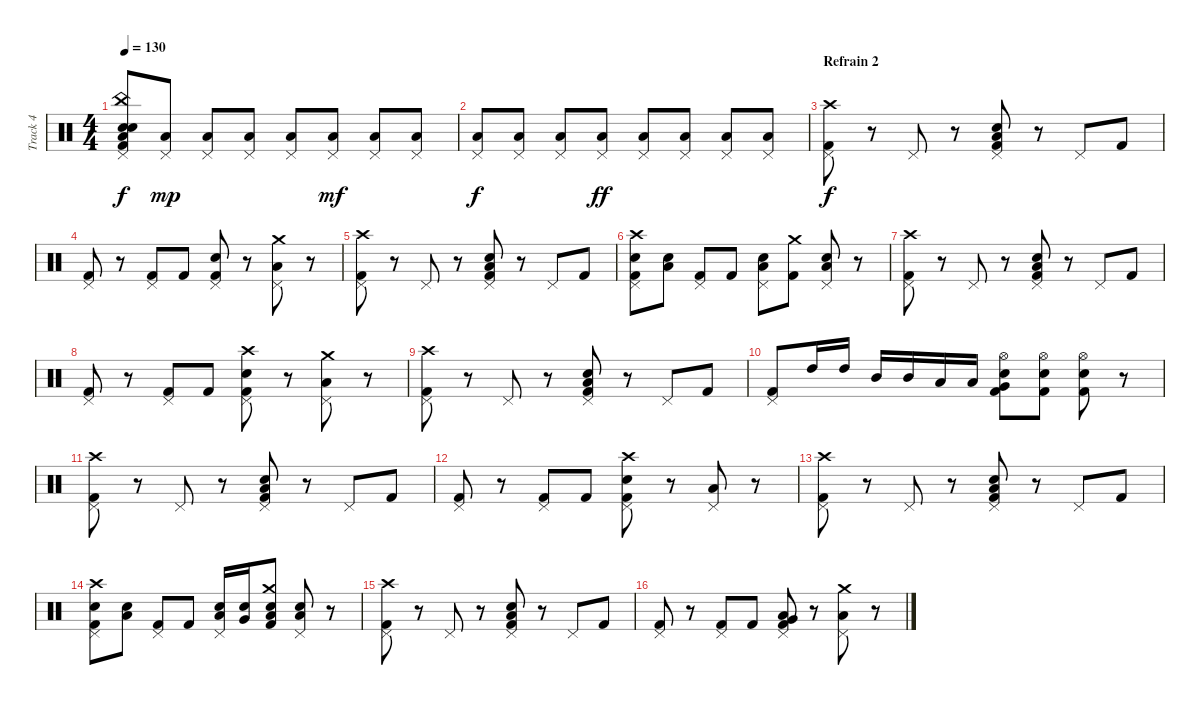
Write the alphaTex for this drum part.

\track ("Track 4" "Track 4") {instrument percussion}
\staff {score}
\articulation defaults
\ts (4 4)
\tempo 130
\clef neutral
\ks c
("Low Tom (hit)" "Snare (hit) 2" "China (hit)" "Electric Snare (hit)" "Kick (hit) 2" "Pedal Hi-Hat (hit)").8{dy f} ("Low Tom (hit)" "Pedal Hi-Hat (hit)").8{dy mp} ("Low Tom (hit)" "Pedal Hi-Hat (hit)").8 ("Low Tom (hit)" "Pedal Hi-Hat (hit)").8 ("Low Tom (hit)" "Pedal Hi-Hat (hit)").8 ("Low Tom (hit)" "Pedal Hi-Hat (hit)").8{dy mf} ("Low Tom (hit)" "Pedal Hi-Hat (hit)").8 ("Low Tom (hit)" "Pedal Hi-Hat (hit)").8 |
("Low Tom (hit)" "Pedal Hi-Hat (hit)").8{dy f} ("Low Tom (hit)" "Pedal Hi-Hat (hit)").8 ("Low Tom (hit)" "Pedal Hi-Hat (hit)").8 ("Low Tom (hit)" "Pedal Hi-Hat (hit)").8{dy ff} ("Low Tom (hit)" "Pedal Hi-Hat (hit)").8 ("Low Tom (hit)" "Pedal Hi-Hat (hit)").8 ("Low Tom (hit)" "Pedal Hi-Hat (hit)").8 ("Low Tom (hit)" "Pedal Hi-Hat (hit)").8 |
\section ("" "Refrain 2")
("Kick (hit) 2" "Pedal Hi-Hat (hit)" "Crash high (hit)").8{dy f} r.8 "Pedal Hi-Hat (hit)".8 r.8 ("Low Tom (hit)" "Snare (hit) 2" "Kick (hit) 2" "Pedal Hi-Hat (hit)").8 r.8 "Pedal Hi-Hat (hit)".8 "Kick (hit) 2".8 |
("Kick (hit) 2" "Pedal Hi-Hat (hit)").8 r.8 ("Pedal Hi-Hat (hit)" "Kick (hit) 2").8 "Kick (hit) 2".8 ("Pedal Hi-Hat (hit)" "Kick (hit) 2" "Snare (hit) 2").8 r.8 ("Pedal Hi-Hat (hit)" "Low Tom (hit)" "Crash medium (hit)").8 r.8 |
("Kick (hit) 2" "Pedal Hi-Hat (hit)" "Crash high (hit)").8 r.8 "Pedal Hi-Hat (hit)".8 r.8 ("Low Tom (hit)" "Snare (hit) 2" "Kick (hit) 2" "Pedal Hi-Hat (hit)").8 r.8 "Pedal Hi-Hat (hit)".8 "Kick (hit) 2".8 |
("Kick (hit) 2" "Pedal Hi-Hat (hit)" "Snare (hit) 2" "Crash high (hit)").8 ("Electric Snare (hit)" "Low Tom (hit)").8 ("Pedal Hi-Hat (hit)" "Kick (hit) 2").8 "Kick (hit) 2".8 ("Pedal Hi-Hat (hit)" "Low Tom (hit)" "Electric Snare (hit)").8 ("Kick (hit) 2" "Crash medium (hit)").8 ("Pedal Hi-Hat (hit)" "Low Tom (hit)" "Electric Snare (hit)").8 r.8 |
("Kick (hit) 2" "Pedal Hi-Hat (hit)" "Crash high (hit)").8 r.8 "Pedal Hi-Hat (hit)".8 r.8 ("Low Tom (hit)" "Snare (hit) 2" "Kick (hit) 2" "Pedal Hi-Hat (hit)").8 r.8 "Pedal Hi-Hat (hit)".8 "Kick (hit) 2".8 |
("Kick (hit) 2" "Pedal Hi-Hat (hit)").8 r.8 ("Pedal Hi-Hat (hit)" "Kick (hit) 2").8 "Kick (hit) 2".8 ("Pedal Hi-Hat (hit)" "Kick (hit) 2" "Snare (hit) 2" "Crash high (hit)").8 r.8 ("Pedal Hi-Hat (hit)" "Low Tom (hit)" "Crash medium (hit)").8 r.8 |
("Kick (hit) 2" "Pedal Hi-Hat (hit)" "Crash high (hit)").8 r.8 "Pedal Hi-Hat (hit)".8 r.8 ("Low Tom (hit)" "Snare (hit) 2" "Kick (hit) 2" "Pedal Hi-Hat (hit)").8 r.8 "Pedal Hi-Hat (hit)".8 "Kick (hit) 2".8 |
("Kick (hit) 2" "Pedal Hi-Hat (hit)").8 "High Tom (hit)".16 "High Tom (hit)".16 "Mid Tom (hit)".16 "Mid Tom (hit)".16 "Low Tom (hit)".16 "Low Tom (hit)".16 ("Very Low Tom (hit)" "Kick (hit) 2" "Snare (hit) 2" "Hi-Hat (open)").8 ("Kick (hit) 2" "Snare (hit) 2" "Hi-Hat (open)").8 ("Kick (hit) 2" "Snare (hit) 2" "Hi-Hat (open)").8 r.8 |
("Kick (hit) 2" "Pedal Hi-Hat (hit)" "Crash high (hit)").8 r.8 "Pedal Hi-Hat (hit)".8 r.8 ("Low Tom (hit)" "Snare (hit) 2" "Kick (hit) 2" "Pedal Hi-Hat (hit)").8 r.8 "Pedal Hi-Hat (hit)".8 "Kick (hit) 2".8 |
("Kick (hit) 2" "Pedal Hi-Hat (hit)").8 r.8 ("Pedal Hi-Hat (hit)" "Kick (hit) 2").8 "Kick (hit) 2".8 ("Pedal Hi-Hat (hit)" "Kick (hit) 2" "Snare (hit) 2" "Crash high (hit)").8 r.8 ("Pedal Hi-Hat (hit)" "Low Tom (hit)").8 r.8 |
("Kick (hit) 2" "Pedal Hi-Hat (hit)" "Crash high (hit)").8 r.8 "Pedal Hi-Hat (hit)".8 r.8 ("Low Tom (hit)" "Snare (hit) 2" "Kick (hit) 2" "Pedal Hi-Hat (hit)").8 r.8 "Pedal Hi-Hat (hit)".8 "Kick (hit) 2".8 |
("Kick (hit) 2" "Pedal Hi-Hat (hit)" "Snare (hit) 2" "Crash high (hit)").8 ("Electric Snare (hit)" "Low Tom (hit)").8 ("Pedal Hi-Hat (hit)" "Kick (hit) 2").8 "Kick (hit) 2".8 ("Pedal Hi-Hat (hit)" "Low Tom (hit)" "Electric Snare (hit)").16 ("Very Low Tom (hit)" "Electric Snare (hit)").16 ("Kick (hit) 2" "Low Floor Tom (hit)" "Electric Snare (hit)" "Crash medium (hit)").8 ("Pedal Hi-Hat (hit)" "Low Tom (hit)" "Electric Snare (hit)").8 r.8 |
("Kick (hit) 2" "Pedal Hi-Hat (hit)" "Crash high (hit)").8 r.8 "Pedal Hi-Hat (hit)".8 r.8 ("Low Tom (hit)" "Snare (hit) 2" "Kick (hit) 2" "Pedal Hi-Hat (hit)").8 r.8 "Pedal Hi-Hat (hit)".8 "Kick (hit) 2".8 |
("Kick (hit) 2" "Pedal Hi-Hat (hit)").8 r.8 ("Pedal Hi-Hat (hit)" "Kick (hit) 2").8 "Kick (hit) 2".8 ("Pedal Hi-Hat (hit)" "Kick (hit) 2" "Low Floor Tom (hit)" "Very Low Tom (hit)").8 r.8 ("Pedal Hi-Hat (hit)" "Low Tom (hit)" "Crash medium (hit)").8 r.8
